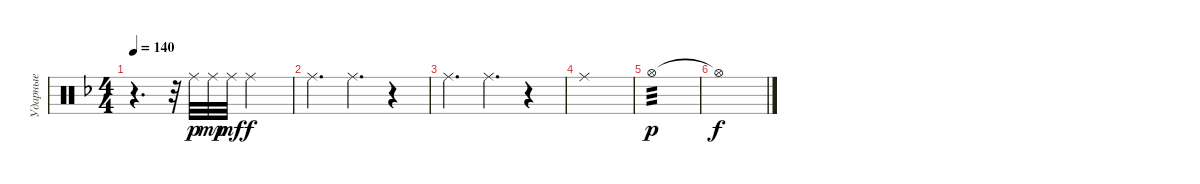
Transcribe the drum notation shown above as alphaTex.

\track ("Ударные" "Ударные") {instrument percussion}
\staff {score}
\articulation defaults
\ts (4 4)
\tempo 140
\clef neutral
\ks dminor
r.4{d dy f} r.32 "Ride (middle)".32{dy p} "Ride (middle)".32{dy mp} "Ride (middle)".32{dy mf} "Ride (middle)".2{dy f} |
"Ride (middle)".4{d} "Ride (middle)".4{d} r.4 |
"Ride (middle)".4{d} "Ride (middle)".4{d} r.4 |
"Ride (middle)".1 |
"Hi-Hat (open)".1{tp 3 dy p volume 0} |
"Hi-Hat (open)"{t}.1{dy f}
